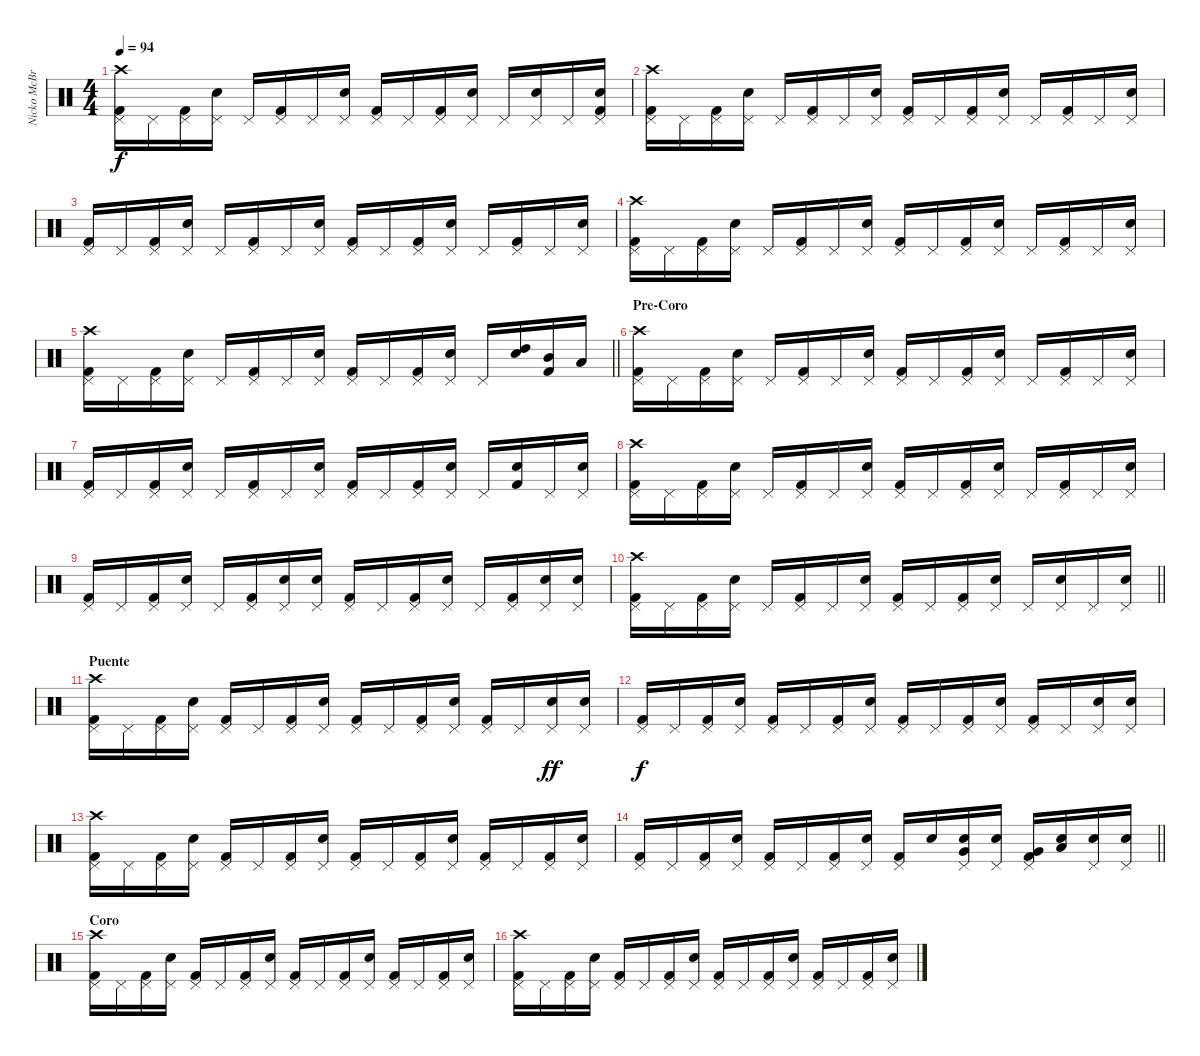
\track ("Nicko McBrain" "Nicko McBr") {instrument percussion}
\staff {score}
\articulation defaults
\ts (4 4)
\tempo 94
\clef neutral
\ks c
("Kick (hit) 2" "Pedal Hi-Hat (hit)" "Crash high (hit)").16{dy f} "Pedal Hi-Hat (hit)".16 ("Kick (hit) 2" "Pedal Hi-Hat (hit)").16 ("Snare (hit) 2" "Pedal Hi-Hat (hit)").16 "Pedal Hi-Hat (hit)".16 ("Kick (hit) 2" "Pedal Hi-Hat (hit)").16 "Pedal Hi-Hat (hit)".16 ("Snare (hit) 2" "Pedal Hi-Hat (hit)").16 ("Kick (hit) 2" "Pedal Hi-Hat (hit)").16 "Pedal Hi-Hat (hit)".16 ("Kick (hit) 2" "Pedal Hi-Hat (hit)").16 ("Snare (hit) 2" "Pedal Hi-Hat (hit)").16 "Pedal Hi-Hat (hit)".16 ("Snare (hit) 2" "Pedal Hi-Hat (hit)").16 "Pedal Hi-Hat (hit)".16 ("Snare (hit) 2" "Pedal Hi-Hat (hit)" "Kick (hit) 2").16 |
("Kick (hit) 2" "Pedal Hi-Hat (hit)" "Crash high (hit)").16 "Pedal Hi-Hat (hit)".16 ("Kick (hit) 2" "Pedal Hi-Hat (hit)").16 ("Snare (hit) 2" "Pedal Hi-Hat (hit)").16 "Pedal Hi-Hat (hit)".16 ("Kick (hit) 2" "Pedal Hi-Hat (hit)").16 "Pedal Hi-Hat (hit)".16 ("Snare (hit) 2" "Pedal Hi-Hat (hit)").16 ("Kick (hit) 2" "Pedal Hi-Hat (hit)").16 "Pedal Hi-Hat (hit)".16 ("Kick (hit) 2" "Pedal Hi-Hat (hit)").16 ("Snare (hit) 2" "Pedal Hi-Hat (hit)").16 "Pedal Hi-Hat (hit)".16 ("Kick (hit) 2" "Pedal Hi-Hat (hit)").16 "Pedal Hi-Hat (hit)".16 ("Snare (hit) 2" "Pedal Hi-Hat (hit)").16 |
("Kick (hit) 2" "Pedal Hi-Hat (hit)").16 "Pedal Hi-Hat (hit)".16 ("Kick (hit) 2" "Pedal Hi-Hat (hit)").16 ("Snare (hit) 2" "Pedal Hi-Hat (hit)").16 "Pedal Hi-Hat (hit)".16 ("Kick (hit) 2" "Pedal Hi-Hat (hit)").16 "Pedal Hi-Hat (hit)".16 ("Snare (hit) 2" "Pedal Hi-Hat (hit)").16 ("Kick (hit) 2" "Pedal Hi-Hat (hit)").16 "Pedal Hi-Hat (hit)".16 ("Kick (hit) 2" "Pedal Hi-Hat (hit)").16 ("Snare (hit) 2" "Pedal Hi-Hat (hit)").16 "Pedal Hi-Hat (hit)".16 ("Kick (hit) 2" "Pedal Hi-Hat (hit)").16 "Pedal Hi-Hat (hit)".16 ("Snare (hit) 2" "Pedal Hi-Hat (hit)").16 |
("Kick (hit) 2" "Pedal Hi-Hat (hit)" "Crash high (hit)").16 "Pedal Hi-Hat (hit)".16 ("Kick (hit) 2" "Pedal Hi-Hat (hit)").16 ("Snare (hit) 2" "Pedal Hi-Hat (hit)").16 "Pedal Hi-Hat (hit)".16 ("Kick (hit) 2" "Pedal Hi-Hat (hit)").16 "Pedal Hi-Hat (hit)".16 ("Snare (hit) 2" "Pedal Hi-Hat (hit)").16 ("Kick (hit) 2" "Pedal Hi-Hat (hit)").16 "Pedal Hi-Hat (hit)".16 ("Kick (hit) 2" "Pedal Hi-Hat (hit)").16 ("Snare (hit) 2" "Pedal Hi-Hat (hit)").16 "Pedal Hi-Hat (hit)".16 ("Kick (hit) 2" "Pedal Hi-Hat (hit)").16 "Pedal Hi-Hat (hit)".16 ("Snare (hit) 2" "Pedal Hi-Hat (hit)").16 |
\barLineRight lightlight
("Kick (hit) 2" "Pedal Hi-Hat (hit)" "Crash high (hit)").16 "Pedal Hi-Hat (hit)".16 ("Kick (hit) 2" "Pedal Hi-Hat (hit)").16 ("Snare (hit) 2" "Pedal Hi-Hat (hit)").16 "Pedal Hi-Hat (hit)".16 ("Kick (hit) 2" "Pedal Hi-Hat (hit)").16 "Pedal Hi-Hat (hit)".16 ("Snare (hit) 2" "Pedal Hi-Hat (hit)").16 ("Kick (hit) 2" "Pedal Hi-Hat (hit)").16 "Pedal Hi-Hat (hit)".16 ("Kick (hit) 2" "Pedal Hi-Hat (hit)").16 ("Snare (hit) 2" "Pedal Hi-Hat (hit)").16 "Pedal Hi-Hat (hit)".16 ("Snare (hit) 2" "High Tom (hit)").16 ("Kick (hit) 2" "Mid Tom (hit)").16 "Low Tom (hit)".16 |
\section ("" "Pre-Coro")
("Kick (hit) 2" "Pedal Hi-Hat (hit)" "Crash high (hit)").16 "Pedal Hi-Hat (hit)".16 ("Kick (hit) 2" "Pedal Hi-Hat (hit)").16 ("Snare (hit) 2" "Pedal Hi-Hat (hit)").16 "Pedal Hi-Hat (hit)".16 ("Kick (hit) 2" "Pedal Hi-Hat (hit)").16 "Pedal Hi-Hat (hit)".16 ("Snare (hit) 2" "Pedal Hi-Hat (hit)").16 ("Kick (hit) 2" "Pedal Hi-Hat (hit)").16 "Pedal Hi-Hat (hit)".16 ("Kick (hit) 2" "Pedal Hi-Hat (hit)").16 ("Snare (hit) 2" "Pedal Hi-Hat (hit)").16 "Pedal Hi-Hat (hit)".16 ("Kick (hit) 2" "Pedal Hi-Hat (hit)").16 "Pedal Hi-Hat (hit)".16 ("Snare (hit) 2" "Pedal Hi-Hat (hit)").16 |
("Kick (hit) 2" "Pedal Hi-Hat (hit)").16 "Pedal Hi-Hat (hit)".16 ("Kick (hit) 2" "Pedal Hi-Hat (hit)").16 ("Snare (hit) 2" "Pedal Hi-Hat (hit)").16 "Pedal Hi-Hat (hit)".16 ("Kick (hit) 2" "Pedal Hi-Hat (hit)").16 "Pedal Hi-Hat (hit)".16 ("Snare (hit) 2" "Pedal Hi-Hat (hit)").16 ("Kick (hit) 2" "Pedal Hi-Hat (hit)").16 "Pedal Hi-Hat (hit)".16 ("Kick (hit) 2" "Pedal Hi-Hat (hit)").16 ("Snare (hit) 2" "Pedal Hi-Hat (hit)").16 "Pedal Hi-Hat (hit)".16 ("Kick (hit) 2" "Snare (hit) 2").16 "Pedal Hi-Hat (hit)".16 ("Snare (hit) 2" "Pedal Hi-Hat (hit)").16 |
("Kick (hit) 2" "Pedal Hi-Hat (hit)" "Crash high (hit)").16 "Pedal Hi-Hat (hit)".16 ("Kick (hit) 2" "Pedal Hi-Hat (hit)").16 ("Snare (hit) 2" "Pedal Hi-Hat (hit)").16 "Pedal Hi-Hat (hit)".16 ("Kick (hit) 2" "Pedal Hi-Hat (hit)").16 "Pedal Hi-Hat (hit)".16 ("Snare (hit) 2" "Pedal Hi-Hat (hit)").16 ("Kick (hit) 2" "Pedal Hi-Hat (hit)").16 "Pedal Hi-Hat (hit)".16 ("Kick (hit) 2" "Pedal Hi-Hat (hit)").16 ("Snare (hit) 2" "Pedal Hi-Hat (hit)").16 "Pedal Hi-Hat (hit)".16 ("Kick (hit) 2" "Pedal Hi-Hat (hit)").16 "Pedal Hi-Hat (hit)".16 ("Snare (hit) 2" "Pedal Hi-Hat (hit)").16 |
("Kick (hit) 2" "Pedal Hi-Hat (hit)").16 "Pedal Hi-Hat (hit)".16 ("Kick (hit) 2" "Pedal Hi-Hat (hit)").16 ("Snare (hit) 2" "Pedal Hi-Hat (hit)").16 "Pedal Hi-Hat (hit)".16 ("Kick (hit) 2" "Pedal Hi-Hat (hit)").16 ("Snare (hit) 2" "Pedal Hi-Hat (hit)").16 ("Snare (hit) 2" "Pedal Hi-Hat (hit)").16 ("Kick (hit) 2" "Pedal Hi-Hat (hit)").16 "Pedal Hi-Hat (hit)".16 ("Kick (hit) 2" "Pedal Hi-Hat (hit)").16 ("Snare (hit) 2" "Pedal Hi-Hat (hit)").16 "Pedal Hi-Hat (hit)".16 ("Kick (hit) 2" "Pedal Hi-Hat (hit)").16 ("Snare (hit) 2" "Pedal Hi-Hat (hit)").16 ("Snare (hit) 2" "Pedal Hi-Hat (hit)").16 |
\barLineRight lightlight
("Kick (hit) 2" "Pedal Hi-Hat (hit)" "Crash high (hit)").16 "Pedal Hi-Hat (hit)".16 ("Kick (hit) 2" "Pedal Hi-Hat (hit)").16 ("Snare (hit) 2" "Pedal Hi-Hat (hit)").16 "Pedal Hi-Hat (hit)".16 ("Kick (hit) 2" "Pedal Hi-Hat (hit)").16 "Pedal Hi-Hat (hit)".16 ("Snare (hit) 2" "Pedal Hi-Hat (hit)").16 ("Kick (hit) 2" "Pedal Hi-Hat (hit)").16 "Pedal Hi-Hat (hit)".16 ("Kick (hit) 2" "Pedal Hi-Hat (hit)").16 ("Snare (hit) 2" "Pedal Hi-Hat (hit)").16 "Pedal Hi-Hat (hit)".16 ("Snare (hit) 2" "Pedal Hi-Hat (hit)").16 "Pedal Hi-Hat (hit)".16 ("Snare (hit) 2" "Pedal Hi-Hat (hit)").16 |
\section ("" "Puente")
("Kick (hit) 2" "Pedal Hi-Hat (hit)" "Crash high (hit)").16 "Pedal Hi-Hat (hit)".16 ("Kick (hit) 2" "Pedal Hi-Hat (hit)").16 ("Snare (hit) 2" "Pedal Hi-Hat (hit)").16 ("Kick (hit) 2" "Pedal Hi-Hat (hit)").16 "Pedal Hi-Hat (hit)".16 ("Kick (hit) 2" "Pedal Hi-Hat (hit)").16 ("Snare (hit) 2" "Pedal Hi-Hat (hit)").16 ("Kick (hit) 2" "Pedal Hi-Hat (hit)").16 "Pedal Hi-Hat (hit)".16 ("Kick (hit) 2" "Pedal Hi-Hat (hit)").16 ("Snare (hit) 2" "Pedal Hi-Hat (hit)").16 ("Kick (hit) 2" "Pedal Hi-Hat (hit)").16 "Pedal Hi-Hat (hit)".16 ("Snare (hit) 2" "Pedal Hi-Hat (hit)").16{dy ff} ("Snare (hit) 2" "Pedal Hi-Hat (hit)").16 |
("Kick (hit) 2" "Pedal Hi-Hat (hit)").16{dy f} "Pedal Hi-Hat (hit)".16 ("Kick (hit) 2" "Pedal Hi-Hat (hit)").16 ("Snare (hit) 2" "Pedal Hi-Hat (hit)").16 ("Kick (hit) 2" "Pedal Hi-Hat (hit)").16 "Pedal Hi-Hat (hit)".16 ("Kick (hit) 2" "Pedal Hi-Hat (hit)").16 ("Snare (hit) 2" "Pedal Hi-Hat (hit)").16 ("Kick (hit) 2" "Pedal Hi-Hat (hit)").16 "Pedal Hi-Hat (hit)".16 ("Kick (hit) 2" "Pedal Hi-Hat (hit)").16 ("Snare (hit) 2" "Pedal Hi-Hat (hit)").16 ("Kick (hit) 2" "Pedal Hi-Hat (hit)").16 "Pedal Hi-Hat (hit)".16 ("Snare (hit) 2" "Pedal Hi-Hat (hit)").16 ("Snare (hit) 2" "Pedal Hi-Hat (hit)").16 |
("Kick (hit) 2" "Pedal Hi-Hat (hit)" "Crash high (hit)").16 "Pedal Hi-Hat (hit)".16 ("Kick (hit) 2" "Pedal Hi-Hat (hit)").16 ("Snare (hit) 2" "Pedal Hi-Hat (hit)").16 ("Kick (hit) 2" "Pedal Hi-Hat (hit)").16 "Pedal Hi-Hat (hit)".16 ("Kick (hit) 2" "Pedal Hi-Hat (hit)").16 ("Snare (hit) 2" "Pedal Hi-Hat (hit)").16 ("Kick (hit) 2" "Pedal Hi-Hat (hit)").16 "Pedal Hi-Hat (hit)".16 ("Kick (hit) 2" "Pedal Hi-Hat (hit)").16 ("Snare (hit) 2" "Pedal Hi-Hat (hit)").16 ("Kick (hit) 2" "Pedal Hi-Hat (hit)").16 "Pedal Hi-Hat (hit)".16 ("Kick (hit) 2" "Pedal Hi-Hat (hit)").16 ("Snare (hit) 2" "Pedal Hi-Hat (hit)").16 |
\barLineRight lightlight
("Kick (hit) 2" "Pedal Hi-Hat (hit)").16 "Pedal Hi-Hat (hit)".16 ("Kick (hit) 2" "Pedal Hi-Hat (hit)").16 ("Snare (hit) 2" "Pedal Hi-Hat (hit)").16 ("Kick (hit) 2" "Pedal Hi-Hat (hit)").16 "Pedal Hi-Hat (hit)".16 ("Kick (hit) 2" "Pedal Hi-Hat (hit)").16 ("Snare (hit) 2" "Pedal Hi-Hat (hit)").16 ("Kick (hit) 2" "Pedal Hi-Hat (hit)").16 "Snare (hit) 2".16 ("Snare (hit) 2" "Pedal Hi-Hat (hit)" "Very Low Tom (hit)").16 ("Snare (hit) 2" "Pedal Hi-Hat (hit)").16 ("Kick (hit) 2" "Pedal Hi-Hat (hit)" "Very Low Tom (hit)").16 ("Snare (hit) 2" "Low Floor Tom (hit)").16 ("Snare (hit) 2" "Pedal Hi-Hat (hit)").16 ("Snare (hit) 2" "Pedal Hi-Hat (hit)").16 |
\section ("" "Coro")
("Kick (hit) 2" "Pedal Hi-Hat (hit)" "Crash high (hit)").16 "Pedal Hi-Hat (hit)".16 ("Kick (hit) 2" "Pedal Hi-Hat (hit)").16 ("Snare (hit) 2" "Pedal Hi-Hat (hit)").16 ("Kick (hit) 2" "Pedal Hi-Hat (hit)").16 "Pedal Hi-Hat (hit)".16 ("Kick (hit) 2" "Pedal Hi-Hat (hit)").16 ("Snare (hit) 2" "Pedal Hi-Hat (hit)").16 ("Kick (hit) 2" "Pedal Hi-Hat (hit)").16 "Pedal Hi-Hat (hit)".16 ("Kick (hit) 2" "Pedal Hi-Hat (hit)").16 ("Snare (hit) 2" "Pedal Hi-Hat (hit)").16 ("Kick (hit) 2" "Pedal Hi-Hat (hit)").16 "Pedal Hi-Hat (hit)".16 ("Kick (hit) 2" "Pedal Hi-Hat (hit)").16 ("Snare (hit) 2" "Pedal Hi-Hat (hit)").16 |
("Kick (hit) 2" "Pedal Hi-Hat (hit)" "Crash high (hit)").16 "Pedal Hi-Hat (hit)".16 ("Kick (hit) 2" "Pedal Hi-Hat (hit)").16 ("Snare (hit) 2" "Pedal Hi-Hat (hit)").16 ("Kick (hit) 2" "Pedal Hi-Hat (hit)").16 "Pedal Hi-Hat (hit)".16 ("Kick (hit) 2" "Pedal Hi-Hat (hit)").16 ("Snare (hit) 2" "Pedal Hi-Hat (hit)").16 ("Kick (hit) 2" "Pedal Hi-Hat (hit)").16 "Pedal Hi-Hat (hit)".16 ("Kick (hit) 2" "Pedal Hi-Hat (hit)").16 ("Snare (hit) 2" "Pedal Hi-Hat (hit)").16 ("Kick (hit) 2" "Pedal Hi-Hat (hit)").16 "Pedal Hi-Hat (hit)".16 ("Kick (hit) 2" "Pedal Hi-Hat (hit)").16 ("Snare (hit) 2" "Pedal Hi-Hat (hit)").16
